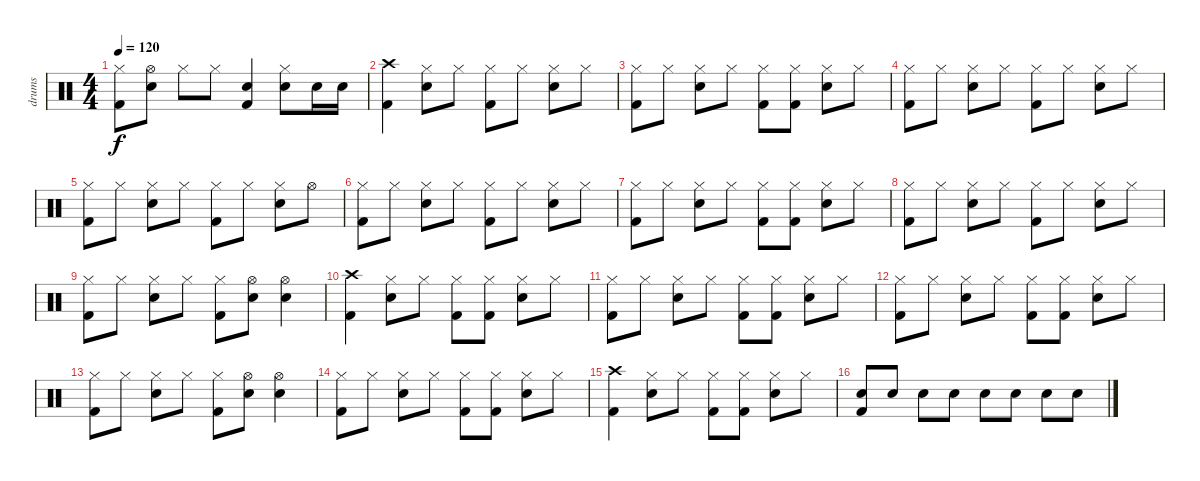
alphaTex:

\track ("drums" "drums") {instrument percussion}
\staff {score}
\articulation defaults
\ts (4 4)
\tempo 120
\clef neutral
\ks c
("Hi-Hat (closed)" "Kick (hit) 2").8{dy f} ("Hi-Hat (open)" "Electric Snare (hit)").8 "Hi-Hat (closed)".8 "Hi-Hat (closed)".8 ("Electric Snare (hit)" "Kick (hit) 2").4 ("Hi-Hat (closed)" "Electric Snare (hit)").8 "Electric Snare (hit)".16 "Electric Snare (hit)".16 |
("Crash high (hit)" "Kick (hit) 2").4 ("Hi-Hat (closed)" "Electric Snare (hit)").8 "Hi-Hat (closed)".8 ("Hi-Hat (closed)" "Kick (hit) 2").8 "Hi-Hat (closed)".8 ("Hi-Hat (closed)" "Electric Snare (hit)").8 "Hi-Hat (closed)".8 |
("Hi-Hat (closed)" "Kick (hit) 2").8 "Hi-Hat (closed)".8 ("Hi-Hat (closed)" "Electric Snare (hit)").8 "Hi-Hat (closed)".8 ("Hi-Hat (closed)" "Kick (hit) 2").8 ("Hi-Hat (closed)" "Kick (hit) 2").8 ("Hi-Hat (closed)" "Electric Snare (hit)").8 "Hi-Hat (closed)".8 |
("Hi-Hat (closed)" "Kick (hit) 2").8 "Hi-Hat (closed)".8 ("Hi-Hat (closed)" "Electric Snare (hit)").8 "Hi-Hat (closed)".8 ("Hi-Hat (closed)" "Kick (hit) 2").8 "Hi-Hat (closed)".8 ("Hi-Hat (closed)" "Electric Snare (hit)").8 "Hi-Hat (closed)".8 |
("Hi-Hat (closed)" "Kick (hit) 2").8 "Hi-Hat (closed)".8 ("Hi-Hat (closed)" "Electric Snare (hit)").8 "Hi-Hat (closed)".8 ("Hi-Hat (closed)" "Kick (hit) 2").8 "Hi-Hat (closed)".8 ("Hi-Hat (closed)" "Electric Snare (hit)").8 "Hi-Hat (open)".8 |
("Hi-Hat (closed)" "Kick (hit) 2").8 "Hi-Hat (closed)".8 ("Hi-Hat (closed)" "Electric Snare (hit)").8 "Hi-Hat (closed)".8 ("Hi-Hat (closed)" "Kick (hit) 2").8 "Hi-Hat (closed)".8 ("Hi-Hat (closed)" "Electric Snare (hit)").8 "Hi-Hat (closed)".8 |
("Hi-Hat (closed)" "Kick (hit) 2").8 "Hi-Hat (closed)".8 ("Hi-Hat (closed)" "Electric Snare (hit)").8 "Hi-Hat (closed)".8 ("Hi-Hat (closed)" "Kick (hit) 2").8 ("Hi-Hat (closed)" "Kick (hit) 2").8 ("Hi-Hat (closed)" "Electric Snare (hit)").8 "Hi-Hat (closed)".8 |
("Hi-Hat (closed)" "Kick (hit) 2").8 "Hi-Hat (closed)".8 ("Hi-Hat (closed)" "Electric Snare (hit)").8 "Hi-Hat (closed)".8 ("Hi-Hat (closed)" "Kick (hit) 2").8 "Hi-Hat (closed)".8 ("Hi-Hat (closed)" "Electric Snare (hit)").8 "Hi-Hat (closed)".8 |
("Hi-Hat (closed)" "Kick (hit) 2").8 "Hi-Hat (closed)".8 ("Hi-Hat (closed)" "Electric Snare (hit)").8 "Hi-Hat (closed)".8 ("Hi-Hat (closed)" "Kick (hit) 2").8 ("Hi-Hat (open)" "Electric Snare (hit)").8 ("Hi-Hat (open)" "Electric Snare (hit)").4 |
("Crash high (hit)" "Kick (hit) 2").4 ("Hi-Hat (closed)" "Electric Snare (hit)").8 "Hi-Hat (closed)".8 ("Hi-Hat (closed)" "Kick (hit) 2").8 ("Hi-Hat (closed)" "Kick (hit) 2").8 ("Hi-Hat (closed)" "Electric Snare (hit)").8 "Hi-Hat (closed)".8 |
("Hi-Hat (closed)" "Kick (hit) 2").8 "Hi-Hat (closed)".8 ("Hi-Hat (closed)" "Electric Snare (hit)").8 "Hi-Hat (closed)".8 ("Hi-Hat (closed)" "Kick (hit) 2").8 ("Hi-Hat (closed)" "Kick (hit) 2").8 ("Hi-Hat (closed)" "Electric Snare (hit)").8 "Hi-Hat (closed)".8 |
("Hi-Hat (closed)" "Kick (hit) 2").8 "Hi-Hat (closed)".8 ("Hi-Hat (closed)" "Electric Snare (hit)").8 "Hi-Hat (closed)".8 ("Hi-Hat (closed)" "Kick (hit) 2").8 ("Hi-Hat (closed)" "Kick (hit) 2").8 ("Hi-Hat (closed)" "Electric Snare (hit)").8 "Hi-Hat (closed)".8 |
("Hi-Hat (closed)" "Kick (hit) 2").8 "Hi-Hat (closed)".8 ("Hi-Hat (closed)" "Electric Snare (hit)").8 "Hi-Hat (closed)".8 ("Hi-Hat (closed)" "Kick (hit) 2").8 ("Hi-Hat (open)" "Electric Snare (hit)").8 ("Hi-Hat (open)" "Electric Snare (hit)").4 |
("Hi-Hat (closed)" "Kick (hit) 2").8 "Hi-Hat (closed)".8 ("Hi-Hat (closed)" "Electric Snare (hit)").8 "Hi-Hat (closed)".8 ("Hi-Hat (closed)" "Kick (hit) 2").8 ("Hi-Hat (closed)" "Kick (hit) 2").8 ("Hi-Hat (closed)" "Electric Snare (hit)").8 "Hi-Hat (closed)".8 |
("Crash high (hit)" "Kick (hit) 2").4 ("Hi-Hat (closed)" "Electric Snare (hit)").8 "Hi-Hat (closed)".8 ("Hi-Hat (closed)" "Kick (hit) 2").8 ("Hi-Hat (closed)" "Kick (hit) 2").8 ("Hi-Hat (closed)" "Electric Snare (hit)").8 "Hi-Hat (closed)".8 |
("Electric Snare (hit)" "Kick (hit) 2").8 "Electric Snare (hit)".8 "Electric Snare (hit)".8 "Electric Snare (hit)".8 "Electric Snare (hit)".8 "Electric Snare (hit)".8 "Electric Snare (hit)".8 "Electric Snare (hit)".8
